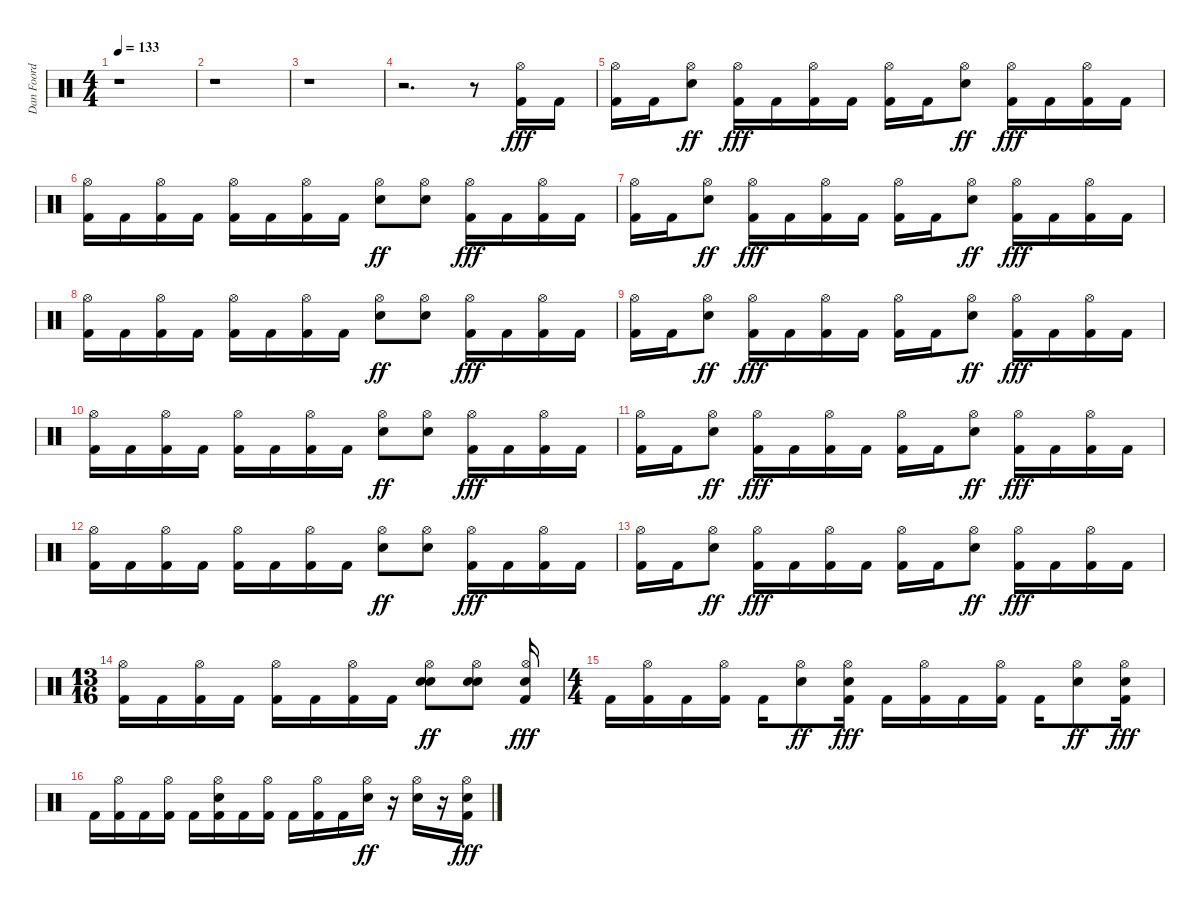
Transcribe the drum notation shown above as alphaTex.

\track ("Dan Foord 2" "Dan Foord ") {instrument percussion}
\staff {score}
\articulation defaults
\ts (4 4)
\tempo 133
\clef neutral
\ks c
r.1{dy fff} |
r.1 |
r.1 |
r.2{d} r.8 ("Kick (hit) 2" "Hi-Hat (open)").16 "Kick (hit) 2".16 |
("Kick (hit) 2" "Hi-Hat (open)").16 "Kick (hit) 2".16 ("Snare (hit) 2" "Hi-Hat (open)").8{dy ff} ("Kick (hit) 2" "Hi-Hat (open)").16{dy fff} "Kick (hit) 2".16 ("Kick (hit) 2" "Hi-Hat (open)").16 "Kick (hit) 2".16 ("Kick (hit) 2" "Hi-Hat (open)").16 "Kick (hit) 2".16 ("Snare (hit) 2" "Hi-Hat (open)").8{dy ff} ("Kick (hit) 2" "Hi-Hat (open)").16{dy fff} "Kick (hit) 2".16 ("Kick (hit) 2" "Hi-Hat (open)").16 "Kick (hit) 2".16 |
("Kick (hit) 2" "Hi-Hat (open)").16 "Kick (hit) 2".16 ("Kick (hit) 2" "Hi-Hat (open)").16 "Kick (hit) 2".16 ("Kick (hit) 2" "Hi-Hat (open)").16 "Kick (hit) 2".16 ("Kick (hit) 2" "Hi-Hat (open)").16 "Kick (hit) 2".16 ("Snare (hit) 2" "Hi-Hat (open)").8{dy ff} ("Snare (hit) 2" "Hi-Hat (open)").8 ("Kick (hit) 2" "Hi-Hat (open)").16{dy fff} "Kick (hit) 2".16 ("Kick (hit) 2" "Hi-Hat (open)").16 "Kick (hit) 2".16 |
("Kick (hit) 2" "Hi-Hat (open)").16 "Kick (hit) 2".16 ("Snare (hit) 2" "Hi-Hat (open)").8{dy ff} ("Kick (hit) 2" "Hi-Hat (open)").16{dy fff} "Kick (hit) 2".16 ("Kick (hit) 2" "Hi-Hat (open)").16 "Kick (hit) 2".16 ("Kick (hit) 2" "Hi-Hat (open)").16 "Kick (hit) 2".16 ("Snare (hit) 2" "Hi-Hat (open)").8{dy ff} ("Kick (hit) 2" "Hi-Hat (open)").16{dy fff} "Kick (hit) 2".16 ("Kick (hit) 2" "Hi-Hat (open)").16 "Kick (hit) 2".16 |
("Kick (hit) 2" "Hi-Hat (open)").16 "Kick (hit) 2".16 ("Kick (hit) 2" "Hi-Hat (open)").16 "Kick (hit) 2".16 ("Kick (hit) 2" "Hi-Hat (open)").16 "Kick (hit) 2".16 ("Kick (hit) 2" "Hi-Hat (open)").16 "Kick (hit) 2".16 ("Snare (hit) 2" "Hi-Hat (open)").8{dy ff} ("Snare (hit) 2" "Hi-Hat (open)").8 ("Kick (hit) 2" "Hi-Hat (open)").16{dy fff} "Kick (hit) 2".16 ("Kick (hit) 2" "Hi-Hat (open)").16 "Kick (hit) 2".16 |
("Kick (hit) 2" "Hi-Hat (open)").16 "Kick (hit) 2".16 ("Snare (hit) 2" "Hi-Hat (open)").8{dy ff} ("Kick (hit) 2" "Hi-Hat (open)").16{dy fff} "Kick (hit) 2".16 ("Kick (hit) 2" "Hi-Hat (open)").16 "Kick (hit) 2".16 ("Kick (hit) 2" "Hi-Hat (open)").16 "Kick (hit) 2".16 ("Snare (hit) 2" "Hi-Hat (open)").8{dy ff} ("Kick (hit) 2" "Hi-Hat (open)").16{dy fff} "Kick (hit) 2".16 ("Kick (hit) 2" "Hi-Hat (open)").16 "Kick (hit) 2".16 |
("Kick (hit) 2" "Hi-Hat (open)").16 "Kick (hit) 2".16 ("Kick (hit) 2" "Hi-Hat (open)").16 "Kick (hit) 2".16 ("Kick (hit) 2" "Hi-Hat (open)").16 "Kick (hit) 2".16 ("Kick (hit) 2" "Hi-Hat (open)").16 "Kick (hit) 2".16 ("Snare (hit) 2" "Hi-Hat (open)").8{dy ff} ("Snare (hit) 2" "Hi-Hat (open)").8 ("Kick (hit) 2" "Hi-Hat (open)").16{dy fff} "Kick (hit) 2".16 ("Kick (hit) 2" "Hi-Hat (open)").16 "Kick (hit) 2".16 |
("Kick (hit) 2" "Hi-Hat (open)").16 "Kick (hit) 2".16 ("Snare (hit) 2" "Hi-Hat (open)").8{dy ff} ("Kick (hit) 2" "Hi-Hat (open)").16{dy fff} "Kick (hit) 2".16 ("Kick (hit) 2" "Hi-Hat (open)").16 "Kick (hit) 2".16 ("Kick (hit) 2" "Hi-Hat (open)").16 "Kick (hit) 2".16 ("Snare (hit) 2" "Hi-Hat (open)").8{dy ff} ("Kick (hit) 2" "Hi-Hat (open)").16{dy fff} "Kick (hit) 2".16 ("Kick (hit) 2" "Hi-Hat (open)").16 "Kick (hit) 2".16 |
("Kick (hit) 2" "Hi-Hat (open)").16 "Kick (hit) 2".16 ("Kick (hit) 2" "Hi-Hat (open)").16 "Kick (hit) 2".16 ("Kick (hit) 2" "Hi-Hat (open)").16 "Kick (hit) 2".16 ("Kick (hit) 2" "Hi-Hat (open)").16 "Kick (hit) 2".16 ("Snare (hit) 2" "Hi-Hat (open)").8{dy ff} ("Snare (hit) 2" "Hi-Hat (open)").8 ("Kick (hit) 2" "Hi-Hat (open)").16{dy fff} "Kick (hit) 2".16 ("Kick (hit) 2" "Hi-Hat (open)").16 "Kick (hit) 2".16 |
("Kick (hit) 2" "Hi-Hat (open)").16 "Kick (hit) 2".16 ("Snare (hit) 2" "Hi-Hat (open)").8{dy ff} ("Kick (hit) 2" "Hi-Hat (open)").16{dy fff} "Kick (hit) 2".16 ("Kick (hit) 2" "Hi-Hat (open)").16 "Kick (hit) 2".16 ("Kick (hit) 2" "Hi-Hat (open)").16 "Kick (hit) 2".16 ("Snare (hit) 2" "Hi-Hat (open)").8{dy ff} ("Kick (hit) 2" "Hi-Hat (open)").16{dy fff} "Kick (hit) 2".16 ("Kick (hit) 2" "Hi-Hat (open)").16 "Kick (hit) 2".16 |
\ts (13 16)
("Kick (hit) 2" "Hi-Hat (open)").16 "Kick (hit) 2".16 ("Kick (hit) 2" "Hi-Hat (open)").16 "Kick (hit) 2".16 ("Kick (hit) 2" "Hi-Hat (open)").16 "Kick (hit) 2".16 ("Kick (hit) 2" "Hi-Hat (open)").16 "Kick (hit) 2".16 ("Snare (hit) 2" "Hi-Hat (open)" "Snare (hit) 2").8{dy ff} ("Snare (hit) 2" "Hi-Hat (open)" "Snare (hit) 2").8 ("Kick (hit) 2" "Hi-Hat (open)" "Snare (hit) 2").16{dy fff} |
\ts (4 4)
"Kick (hit) 2".16 ("Kick (hit) 2" "Hi-Hat (open)").16 "Kick (hit) 2".16 ("Kick (hit) 2" "Hi-Hat (open)").16 "Kick (hit) 2".16 ("Snare (hit) 2" "Hi-Hat (open)").8{dy ff} ("Snare (hit) 2" "Kick (hit) 2" "Hi-Hat (open)").16{dy fff} "Kick (hit) 2".16 ("Kick (hit) 2" "Hi-Hat (open)").16 "Kick (hit) 2".16 ("Kick (hit) 2" "Hi-Hat (open)").16 "Kick (hit) 2".16 ("Snare (hit) 2" "Hi-Hat (open)").8{dy ff} ("Snare (hit) 2" "Kick (hit) 2" "Hi-Hat (open)").16{dy fff} |
"Kick (hit) 2".16 ("Kick (hit) 2" "Hi-Hat (open)").16 "Kick (hit) 2".16 ("Kick (hit) 2" "Hi-Hat (open)").16 "Kick (hit) 2".16 ("Kick (hit) 2" "Hi-Hat (open)" "Snare (hit) 2").16 "Kick (hit) 2".16 ("Kick (hit) 2" "Hi-Hat (open)").16 "Kick (hit) 2".16 ("Kick (hit) 2" "Hi-Hat (open)").16 "Kick (hit) 2".16 ("Snare (hit) 2" "Hi-Hat (open)").16{dy ff} r.16 ("Snare (hit) 2" "Hi-Hat (open)").16 r.16 ("Snare (hit) 2" "Kick (hit) 2" "Hi-Hat (open)").16{dy fff}
